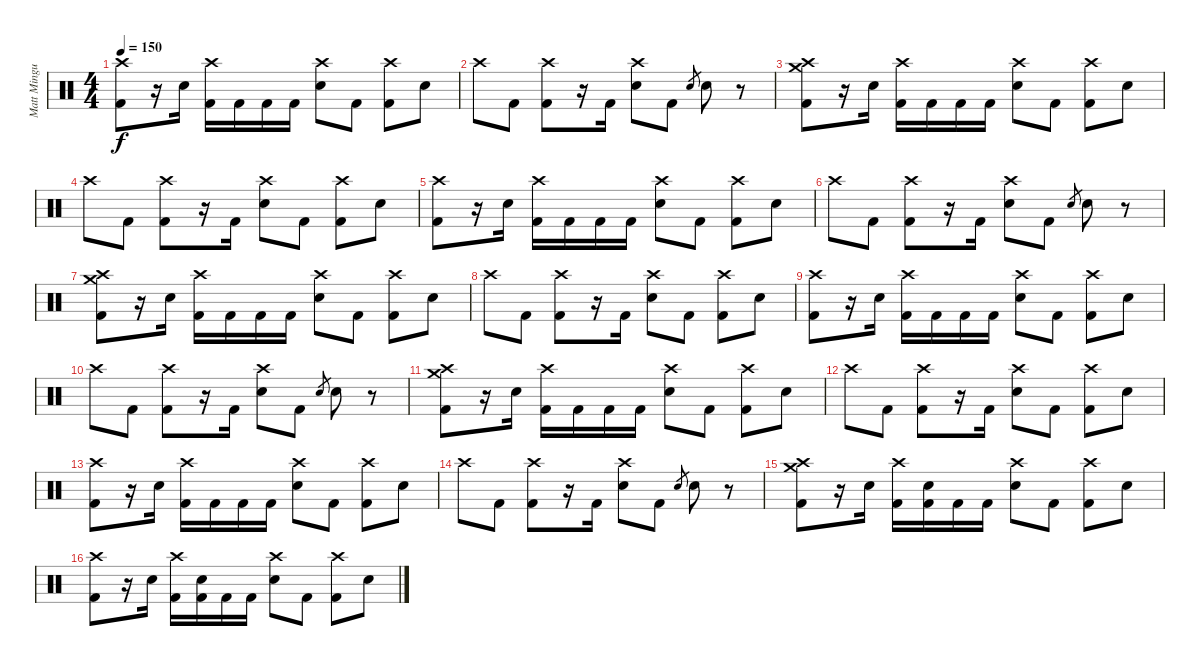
\track ("Matt Mingus (Drums)" "Matt Mingu") {instrument percussion}
\staff {score}
\articulation defaults
\ts (4 4)
\tempo 150
\clef neutral
\ks c
("Crash high (hit)" "Kick (hit) 2").8{dy f} r.16 "Electric Snare (hit)".16 ("Crash high (hit)" "Kick (hit) 2").16 "Kick (hit) 2".16 "Kick (hit) 2".16 "Kick (hit) 2".16 ("Crash high (hit)" "Electric Snare (hit)").8 "Kick (hit) 2".8 ("Crash high (hit)" "Kick (hit) 2").8 "Electric Snare (hit)".8 |
"Crash high (hit)".8 "Kick (hit) 2".8 ("Crash high (hit)" "Kick (hit) 2").8 r.16 "Kick (hit) 2".16 ("Crash high (hit)" "Electric Snare (hit)").8 "Kick (hit) 2".8 "Electric Snare (hit)".8{gr} "Electric Snare (hit)".8 r.8 |
("Crash medium (hit)" "Crash high (hit)" "Kick (hit) 2").8 r.16 "Electric Snare (hit)".16 ("Crash high (hit)" "Kick (hit) 2").16 "Kick (hit) 2".16 "Kick (hit) 2".16 "Kick (hit) 2".16 ("Crash high (hit)" "Electric Snare (hit)").8 "Kick (hit) 2".8 ("Crash high (hit)" "Kick (hit) 2").8 "Electric Snare (hit)".8 |
"Crash high (hit)".8 "Kick (hit) 2".8 ("Crash high (hit)" "Kick (hit) 2").8 r.16 "Kick (hit) 2".16 ("Crash high (hit)" "Electric Snare (hit)").8 "Kick (hit) 2".8 ("Crash high (hit)" "Kick (hit) 2").8 "Electric Snare (hit)".8 |
("Crash high (hit)" "Kick (hit) 2").8 r.16 "Electric Snare (hit)".16 ("Crash high (hit)" "Kick (hit) 2").16 "Kick (hit) 2".16 "Kick (hit) 2".16 "Kick (hit) 2".16 ("Crash high (hit)" "Electric Snare (hit)").8 "Kick (hit) 2".8 ("Crash high (hit)" "Kick (hit) 2").8 "Electric Snare (hit)".8 |
"Crash high (hit)".8 "Kick (hit) 2".8 ("Crash high (hit)" "Kick (hit) 2").8 r.16 "Kick (hit) 2".16 ("Crash high (hit)" "Electric Snare (hit)").8 "Kick (hit) 2".8 "Electric Snare (hit)".8{gr} "Electric Snare (hit)".8 r.8 |
("Crash medium (hit)" "Crash high (hit)" "Kick (hit) 2").8 r.16 "Electric Snare (hit)".16 ("Crash high (hit)" "Kick (hit) 2").16 "Kick (hit) 2".16 "Kick (hit) 2".16 "Kick (hit) 2".16 ("Crash high (hit)" "Electric Snare (hit)").8 "Kick (hit) 2".8 ("Crash high (hit)" "Kick (hit) 2").8 "Electric Snare (hit)".8 |
"Crash high (hit)".8 "Kick (hit) 2".8 ("Crash high (hit)" "Kick (hit) 2").8 r.16 "Kick (hit) 2".16 ("Crash high (hit)" "Electric Snare (hit)").8 "Kick (hit) 2".8 ("Crash high (hit)" "Kick (hit) 2").8 "Electric Snare (hit)".8 |
("Crash high (hit)" "Kick (hit) 2").8 r.16 "Electric Snare (hit)".16 ("Crash high (hit)" "Kick (hit) 2").16 "Kick (hit) 2".16 "Kick (hit) 2".16 "Kick (hit) 2".16 ("Crash high (hit)" "Electric Snare (hit)").8 "Kick (hit) 2".8 ("Crash high (hit)" "Kick (hit) 2").8 "Electric Snare (hit)".8 |
"Crash high (hit)".8 "Kick (hit) 2".8 ("Crash high (hit)" "Kick (hit) 2").8 r.16 "Kick (hit) 2".16 ("Crash high (hit)" "Electric Snare (hit)").8 "Kick (hit) 2".8 "Electric Snare (hit)".8{gr} "Electric Snare (hit)".8 r.8 |
("Crash medium (hit)" "Crash high (hit)" "Kick (hit) 2").8 r.16 "Electric Snare (hit)".16 ("Crash high (hit)" "Kick (hit) 2").16 "Kick (hit) 2".16 "Kick (hit) 2".16 "Kick (hit) 2".16 ("Crash high (hit)" "Electric Snare (hit)").8 "Kick (hit) 2".8 ("Crash high (hit)" "Kick (hit) 2").8 "Electric Snare (hit)".8 |
"Crash high (hit)".8 "Kick (hit) 2".8 ("Crash high (hit)" "Kick (hit) 2").8 r.16 "Kick (hit) 2".16 ("Crash high (hit)" "Electric Snare (hit)").8 "Kick (hit) 2".8 ("Crash high (hit)" "Kick (hit) 2").8 "Electric Snare (hit)".8 |
("Crash high (hit)" "Kick (hit) 2").8 r.16 "Electric Snare (hit)".16 ("Crash high (hit)" "Kick (hit) 2").16 "Kick (hit) 2".16 "Kick (hit) 2".16 "Kick (hit) 2".16 ("Crash high (hit)" "Electric Snare (hit)").8 "Kick (hit) 2".8 ("Crash high (hit)" "Kick (hit) 2").8 "Electric Snare (hit)".8 |
"Crash high (hit)".8 "Kick (hit) 2".8 ("Crash high (hit)" "Kick (hit) 2").8 r.16 "Kick (hit) 2".16 ("Crash high (hit)" "Electric Snare (hit)").8 "Kick (hit) 2".8 "Electric Snare (hit)".8{gr} "Electric Snare (hit)".8 r.8 |
("Crash medium (hit)" "Crash high (hit)" "Kick (hit) 2").8 r.16 "Electric Snare (hit)".16 ("Crash high (hit)" "Kick (hit) 2").16 ("Electric Snare (hit)" "Kick (hit) 2").16 "Kick (hit) 2".16 "Kick (hit) 2".16 ("Crash high (hit)" "Electric Snare (hit)").8 "Kick (hit) 2".8 ("Crash high (hit)" "Kick (hit) 2").8 "Electric Snare (hit)".8 |
("Crash high (hit)" "Kick (hit) 2").8 r.16 "Electric Snare (hit)".16 ("Crash high (hit)" "Kick (hit) 2").16 ("Electric Snare (hit)" "Kick (hit) 2").16 "Kick (hit) 2".16 "Kick (hit) 2".16 ("Crash high (hit)" "Electric Snare (hit)").8 "Kick (hit) 2".8 ("Crash high (hit)" "Kick (hit) 2").8 "Electric Snare (hit)".8
